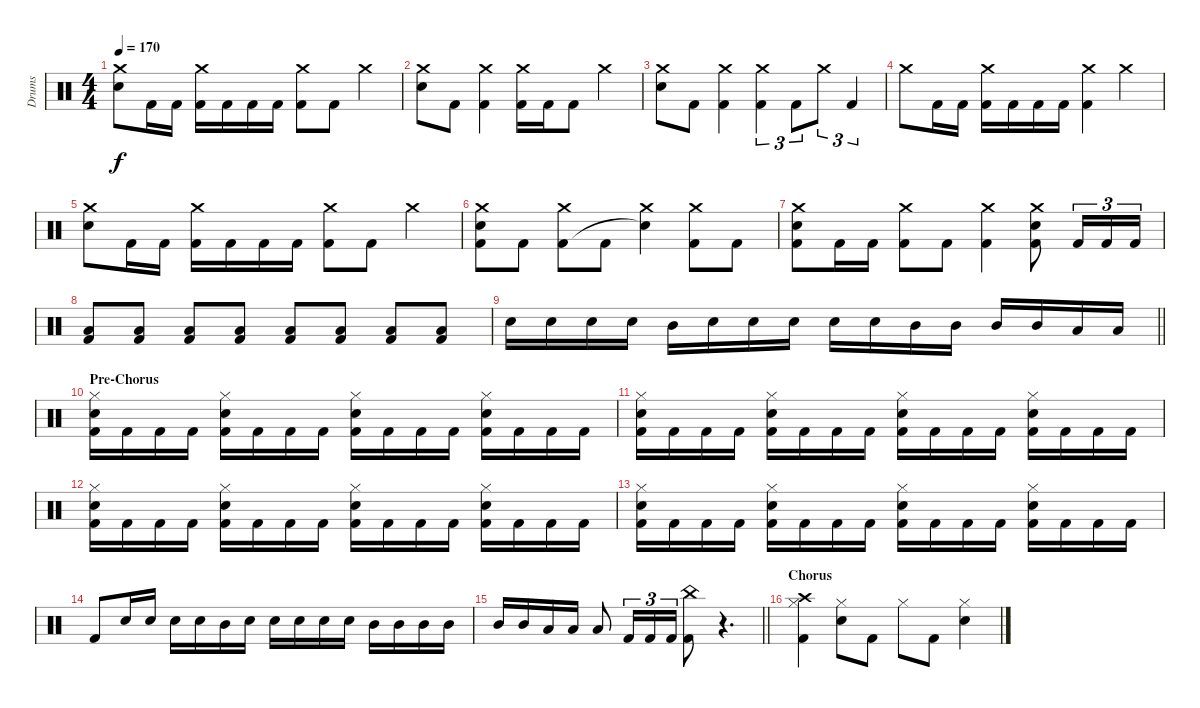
\track ("Drums" "Drums") {instrument percussion}
\staff {score}
\articulation defaults
\ts (4 4)
\tempo 170
\clef neutral
\ks c
("Crash medium (hit)" "Snare (hit) 2").8{dy f} "Kick (hit) 2".16 "Kick (hit) 2".16 ("Crash medium (hit)" "Kick (hit) 2").16 "Kick (hit) 2".16 "Kick (hit) 2".16 "Kick (hit) 2".16 ("Crash medium (hit)" "Kick (hit) 2").8 "Kick (hit) 2".8 "Crash medium (hit)".4 |
("Crash medium (hit)" "Snare (hit) 2").8 "Kick (hit) 2".8 ("Crash medium (hit)" "Kick (hit) 2").4 ("Crash medium (hit)" "Kick (hit) 2").16 "Kick (hit) 2".16 "Kick (hit) 2".8 "Crash medium (hit)".4 |
("Crash medium (hit)" "Snare (hit) 2").8 "Kick (hit) 2".8 ("Crash medium (hit)" "Kick (hit) 2").4 ("Crash medium (hit)" "Kick (hit) 2").4{tu (3 2)} "Kick (hit) 2".8{tu (3 2) beam merge} "Crash medium (hit)".8{tu (3 2)} "Kick (hit) 2".4{tu (3 2)} |
"Crash medium (hit)".8 "Kick (hit) 2".16 "Kick (hit) 2".16 ("Crash medium (hit)" "Kick (hit) 2").16 "Kick (hit) 2".16 "Kick (hit) 2".16 "Kick (hit) 2".16 ("Crash medium (hit)" "Kick (hit) 2").4 "Crash medium (hit)".4 |
("Crash medium (hit)" "Snare (hit) 2").8 "Kick (hit) 2".16 "Kick (hit) 2".16 ("Crash medium (hit)" "Kick (hit) 2").16 "Kick (hit) 2".16 "Kick (hit) 2".16 "Kick (hit) 2".16 ("Crash medium (hit)" "Kick (hit) 2").8 "Kick (hit) 2".8 "Crash medium (hit)".4 |
("Crash medium (hit)" "Snare (hit) 2" "Kick (hit) 2").8 "Kick (hit) 2".8 ("Crash medium (hit)" "Kick (hit) 2").8 "Kick (hit) 2".8 ("Crash medium (hit)" "Snare (hit)"{t}).4 ("Crash medium (hit)" "Kick (hit) 2").8 "Kick (hit) 2".8 |
("Crash medium (hit)" "Snare (hit) 2" "Kick (hit) 2").8 "Kick (hit) 2".16 "Kick (hit) 2".16 ("Crash medium (hit)" "Kick (hit) 2").8 "Kick (hit) 2".8 ("Crash medium (hit)" "Kick (hit) 2").4 ("Crash medium (hit)" "Snare (hit) 2" "Kick (hit) 2").8 "Kick (hit) 2".16{tu (3 2)} "Kick (hit) 2".16{tu (3 2)} "Kick (hit) 2".16{tu (3 2)} |
("Low Tom (hit)" "Kick (hit) 2").8 ("Low Tom (hit)" "Kick (hit) 2").8 ("Low Tom (hit)" "Kick (hit) 2").8 ("Low Tom (hit)" "Kick (hit) 2").8 ("Low Tom (hit)" "Kick (hit) 2").8 ("Low Tom (hit)" "Kick (hit) 2").8 ("Low Tom (hit)" "Kick (hit) 2").8 ("Low Tom (hit)" "Kick (hit) 2").8 |
\barLineRight lightlight "Snare (hit) 2".16 "Snare (hit) 2".16 "Snare (hit) 2".16 "Snare (hit) 2".16 "Mid Tom (hit)".16 "Snare (hit) 2".16 "Snare (hit) 2".16 "Snare (hit) 2".16 "Snare (hit) 2".16 "Snare (hit) 2".16 "Mid Tom (hit)".16 "Mid Tom (hit)".16 "Mid Tom (hit)".16 "Mid Tom (hit)".16 "Low Tom (hit)".16 "Low Tom (hit)".16
|
\section ("" "Pre-Chorus")
("Hi-Hat (closed)" "Snare (hit) 2" "Kick (hit) 2").16 "Kick (hit) 2".16 "Kick (hit) 2".16 "Kick (hit) 2".16 ("Hi-Hat (closed)" "Snare (hit) 2" "Kick (hit) 2").16 "Kick (hit) 2".16 "Kick (hit) 2".16 "Kick (hit) 2".16 ("Hi-Hat (closed)" "Snare (hit) 2" "Kick (hit) 2").16 "Kick (hit) 2".16 "Kick (hit) 2".16 "Kick (hit) 2".16 ("Hi-Hat (closed)" "Snare (hit) 2" "Kick (hit) 2").16 "Kick (hit) 2".16 "Kick (hit) 2".16 "Kick (hit) 2".16 |
("Hi-Hat (closed)" "Snare (hit) 2" "Kick (hit) 2").16 "Kick (hit) 2".16 "Kick (hit) 2".16 "Kick (hit) 2".16 ("Hi-Hat (closed)" "Snare (hit) 2" "Kick (hit) 2").16 "Kick (hit) 2".16 "Kick (hit) 2".16 "Kick (hit) 2".16 ("Hi-Hat (closed)" "Snare (hit) 2" "Kick (hit) 2").16 "Kick (hit) 2".16 "Kick (hit) 2".16 "Kick (hit) 2".16 ("Hi-Hat (closed)" "Snare (hit) 2" "Kick (hit) 2").16 "Kick (hit) 2".16 "Kick (hit) 2".16 "Kick (hit) 2".16 |
("Hi-Hat (closed)" "Snare (hit) 2" "Kick (hit) 2").16 "Kick (hit) 2".16 "Kick (hit) 2".16 "Kick (hit) 2".16 ("Hi-Hat (closed)" "Snare (hit) 2" "Kick (hit) 2").16 "Kick (hit) 2".16 "Kick (hit) 2".16 "Kick (hit) 2".16 ("Hi-Hat (closed)" "Snare (hit) 2" "Kick (hit) 2").16 "Kick (hit) 2".16 "Kick (hit) 2".16 "Kick (hit) 2".16 ("Hi-Hat (closed)" "Snare (hit) 2" "Kick (hit) 2").16 "Kick (hit) 2".16 "Kick (hit) 2".16 "Kick (hit) 2".16 |
("Hi-Hat (closed)" "Snare (hit) 2" "Kick (hit) 2").16 "Kick (hit) 2".16 "Kick (hit) 2".16 "Kick (hit) 2".16 ("Hi-Hat (closed)" "Snare (hit) 2" "Kick (hit) 2").16 "Kick (hit) 2".16 "Kick (hit) 2".16 "Kick (hit) 2".16 ("Hi-Hat (closed)" "Snare (hit) 2" "Kick (hit) 2").16 "Kick (hit) 2".16 "Kick (hit) 2".16 "Kick (hit) 2".16 ("Hi-Hat (closed)" "Snare (hit) 2" "Kick (hit) 2").16 "Kick (hit) 2".16 "Kick (hit) 2".16 "Kick (hit) 2".16 |
"Kick (hit) 2".8 "Snare (hit) 2".16 "Snare (hit) 2".16 "Snare (hit) 2".16 "Snare (hit) 2".16 "Mid Tom (hit)".16 "Snare (hit) 2".16 "Snare (hit) 2".16 "Snare (hit) 2".16 "Snare (hit) 2".16 "Snare (hit) 2".16 "Mid Tom (hit)".16 "Mid Tom (hit)".16 "Mid Tom (hit)".16 "Mid Tom (hit)".16 |
\barLineRight lightlight "Mid Tom (hit)".16 "Mid Tom (hit)".16 "Low Tom (hit)".16 "Low Tom (hit)".16 "Low Tom (hit)".8 "Kick (hit) 2".16{tu (3 2)} "Kick (hit) 2".16{tu (3 2)} "Kick (hit) 2".16{tu (3 2)}
("China (hit)" "Kick (hit) 2").8 r.4{d} |
\section ("" "Chorus")
("Crash high (hit)" "Hi-Hat (closed)" "Kick (hit) 2").4 ("Hi-Hat (closed)" "Snare (hit) 2").8 "Kick (hit) 2".8 "Hi-Hat (closed)".8 "Kick (hit) 2".8 ("Hi-Hat (closed)" "Snare (hit) 2").4
